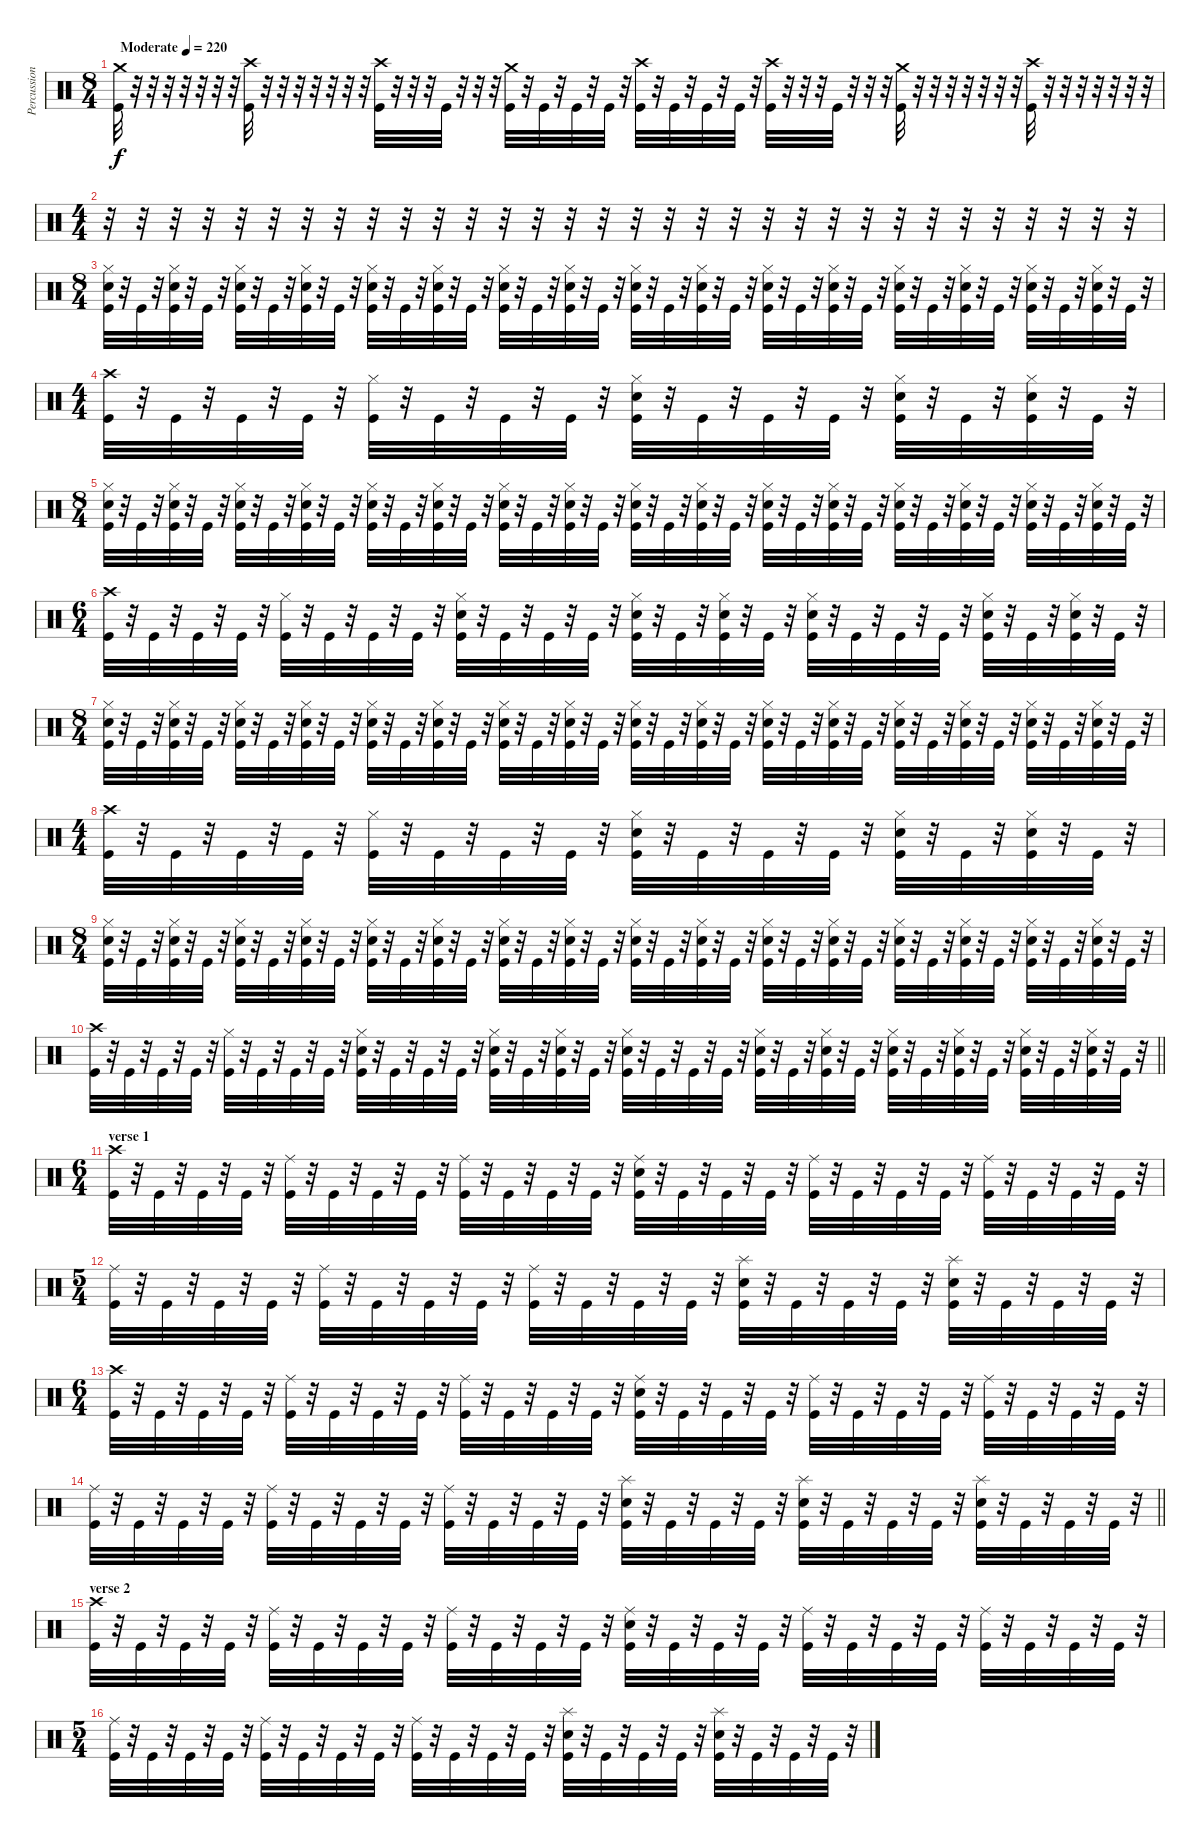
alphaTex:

\track ("Percussion" "Percussion") {instrument percussion}
\staff {score}
\articulation defaults
\ts (8 4)
\tempo (220 "Moderate")
\clef neutral
\ks c
("Kick (hit)" "Crash medium (hit)").32{dy f} r.32 r.32 r.32 r.32 r.32 r.32 r.32 ("Kick (hit)" "Crash high (hit)").32 r.32 r.32 r.32 r.32 r.32 r.32 r.32 ("Kick (hit)" "Crash high (hit)").32 r.32 r.32 r.32 "Kick (hit)".32 r.32 r.32 r.32 ("Kick (hit)" "Crash medium (hit)").32 r.32 "Kick (hit)".32 r.32 "Kick (hit)".32 r.32 "Kick (hit)".32 r.32 ("Kick (hit)" "Crash high (hit)").32 r.32 "Kick (hit)".32 r.32 "Kick (hit)".32 r.32 "Kick (hit)".32 r.32 ("Kick (hit)" "Crash high (hit)").32 r.32 r.32 r.32 "Kick (hit)".32 r.32 r.32 r.32 ("Kick (hit)" "Crash medium (hit)").32 r.32 r.32 r.32 r.32 r.32 r.32 r.32 ("Kick (hit)" "Crash high (hit)").32 r.32 r.32 r.32 r.32 r.32 r.32 r.32 |
\ts (4 4)
r.32 r.32 r.32 r.32 r.32 r.32 r.32 r.32 r.32 r.32 r.32 r.32 r.32 r.32 r.32 r.32 r.32 r.32 r.32 r.32 r.32 r.32 r.32 r.32 r.32 r.32 r.32 r.32 r.32 r.32 r.32 r.32 |
\ts (8 4)
("Electric Snare (hit)" "Kick (hit)" "Hi-Hat (closed)").32 r.32 "Kick (hit)".32 r.32 ("Electric Snare (hit)" "Kick (hit)" "Hi-Hat (closed)").32 r.32 "Kick (hit)".32 r.32 ("Electric Snare (hit)" "Kick (hit)" "Hi-Hat (closed)").32 r.32 "Kick (hit)".32 r.32 ("Electric Snare (hit)" "Kick (hit)" "Hi-Hat (closed)").32 r.32 "Kick (hit)".32 r.32 ("Electric Snare (hit)" "Kick (hit)" "Hi-Hat (closed)").32 r.32 "Kick (hit)".32 r.32 ("Electric Snare (hit)" "Kick (hit)" "Hi-Hat (closed)").32 r.32 "Kick (hit)".32 r.32 ("Electric Snare (hit)" "Kick (hit)" "Hi-Hat (closed)").32 r.32 "Kick (hit)".32 r.32 ("Electric Snare (hit)" "Kick (hit)" "Hi-Hat (closed)").32 r.32 "Kick (hit)".32 r.32 ("Electric Snare (hit)" "Kick (hit)" "Hi-Hat (closed)").32 r.32 "Kick (hit)".32 r.32 ("Electric Snare (hit)" "Kick (hit)" "Hi-Hat (closed)").32 r.32 "Kick (hit)".32 r.32 ("Electric Snare (hit)" "Kick (hit)" "Hi-Hat (closed)").32 r.32 "Kick (hit)".32 r.32 ("Electric Snare (hit)" "Kick (hit)" "Hi-Hat (closed)").32 r.32 "Kick (hit)".32 r.32 ("Kick (hit)" "Electric Snare (hit)" "Hi-Hat (closed)").32 r.32 "Kick (hit)".32 r.32 ("Kick (hit)" "Electric Snare (hit)" "Hi-Hat (closed)").32 r.32 "Kick (hit)".32 r.32 ("Kick (hit)" "Electric Snare (hit)" "Hi-Hat (closed)").32 r.32 "Kick (hit)".32 r.32 ("Kick (hit)" "Electric Snare (hit)" "Hi-Hat (closed)").32 r.32 "Kick (hit)".32 r.32 |
\ts (4 4)
("Kick (hit)" "Crash high (hit)").32 r.32 "Kick (hit)".32 r.32 "Kick (hit)".32 r.32 "Kick (hit)".32 r.32 ("Kick (hit)" "Hi-Hat (closed)").32 r.32 "Kick (hit)".32 r.32 "Kick (hit)".32 r.32 "Kick (hit)".32 r.32 ("Kick (hit)" "Electric Snare (hit)" "Hi-Hat (closed)").32 r.32 "Kick (hit)".32 r.32 "Kick (hit)".32 r.32 "Kick (hit)".32 r.32 ("Kick (hit)" "Electric Snare (hit)" "Hi-Hat (closed)").32 r.32 "Kick (hit)".32 r.32 ("Kick (hit)" "Electric Snare (hit)" "Hi-Hat (closed)").32 r.32 "Kick (hit)".32 r.32 |
\ts (8 4)
("Electric Snare (hit)" "Kick (hit)" "Hi-Hat (closed)").32 r.32 "Kick (hit)".32 r.32 ("Electric Snare (hit)" "Kick (hit)" "Hi-Hat (closed)").32 r.32 "Kick (hit)".32 r.32 ("Electric Snare (hit)" "Kick (hit)" "Hi-Hat (closed)").32 r.32 "Kick (hit)".32 r.32 ("Electric Snare (hit)" "Kick (hit)" "Hi-Hat (closed)").32 r.32 "Kick (hit)".32 r.32 ("Electric Snare (hit)" "Kick (hit)" "Hi-Hat (closed)").32 r.32 "Kick (hit)".32 r.32 ("Electric Snare (hit)" "Kick (hit)" "Hi-Hat (closed)").32 r.32 "Kick (hit)".32 r.32 ("Electric Snare (hit)" "Kick (hit)" "Hi-Hat (closed)").32 r.32 "Kick (hit)".32 r.32 ("Electric Snare (hit)" "Kick (hit)" "Hi-Hat (closed)").32 r.32 "Kick (hit)".32 r.32 ("Electric Snare (hit)" "Kick (hit)" "Hi-Hat (closed)").32 r.32 "Kick (hit)".32 r.32 ("Electric Snare (hit)" "Kick (hit)" "Hi-Hat (closed)").32 r.32 "Kick (hit)".32 r.32 ("Electric Snare (hit)" "Kick (hit)" "Hi-Hat (closed)").32 r.32 "Kick (hit)".32 r.32 ("Electric Snare (hit)" "Kick (hit)" "Hi-Hat (closed)").32 r.32 "Kick (hit)".32 r.32 ("Kick (hit)" "Electric Snare (hit)" "Hi-Hat (closed)").32 r.32 "Kick (hit)".32 r.32 ("Kick (hit)" "Electric Snare (hit)" "Hi-Hat (closed)").32 r.32 "Kick (hit)".32 r.32 ("Kick (hit)" "Electric Snare (hit)" "Hi-Hat (closed)").32 r.32 "Kick (hit)".32 r.32 ("Kick (hit)" "Electric Snare (hit)" "Hi-Hat (closed)").32 r.32 "Kick (hit)".32 r.32 |
\ts (6 4)
("Kick (hit)" "Crash high (hit)").32 r.32 "Kick (hit)".32 r.32 "Kick (hit)".32 r.32 "Kick (hit)".32 r.32 ("Kick (hit)" "Hi-Hat (closed)").32 r.32 "Kick (hit)".32 r.32 "Kick (hit)".32 r.32 "Kick (hit)".32 r.32 ("Kick (hit)" "Electric Snare (hit)" "Hi-Hat (closed)").32 r.32 "Kick (hit)".32 r.32 "Kick (hit)".32 r.32 "Kick (hit)".32 r.32 ("Kick (hit)" "Electric Snare (hit)" "Hi-Hat (closed)").32 r.32 "Kick (hit)".32 r.32 ("Kick (hit)" "Electric Snare (hit)" "Hi-Hat (closed)").32 r.32 "Kick (hit)".32 r.32 ("Kick (hit)" "Electric Snare (hit)" "Hi-Hat (closed)").32 r.32 "Kick (hit)".32 r.32 "Kick (hit)".32 r.32 "Kick (hit)".32 r.32 ("Kick (hit)" "Electric Snare (hit)" "Hi-Hat (closed)").32 r.32 "Kick (hit)".32 r.32 ("Kick (hit)" "Electric Snare (hit)" "Hi-Hat (closed)").32 r.32 "Kick (hit)".32 r.32 |
\ts (8 4)
("Electric Snare (hit)" "Kick (hit)" "Hi-Hat (closed)").32 r.32 "Kick (hit)".32 r.32 ("Electric Snare (hit)" "Kick (hit)" "Hi-Hat (closed)").32 r.32 "Kick (hit)".32 r.32 ("Electric Snare (hit)" "Kick (hit)" "Hi-Hat (closed)").32 r.32 "Kick (hit)".32 r.32 ("Electric Snare (hit)" "Kick (hit)" "Hi-Hat (closed)").32 r.32 "Kick (hit)".32 r.32 ("Electric Snare (hit)" "Kick (hit)" "Hi-Hat (closed)").32 r.32 "Kick (hit)".32 r.32 ("Electric Snare (hit)" "Kick (hit)" "Hi-Hat (closed)").32 r.32 "Kick (hit)".32 r.32 ("Electric Snare (hit)" "Kick (hit)" "Hi-Hat (closed)").32 r.32 "Kick (hit)".32 r.32 ("Electric Snare (hit)" "Kick (hit)" "Hi-Hat (closed)").32 r.32 "Kick (hit)".32 r.32 ("Electric Snare (hit)" "Kick (hit)" "Hi-Hat (closed)").32 r.32 "Kick (hit)".32 r.32 ("Electric Snare (hit)" "Kick (hit)" "Hi-Hat (closed)").32 r.32 "Kick (hit)".32 r.32 ("Electric Snare (hit)" "Kick (hit)" "Hi-Hat (closed)").32 r.32 "Kick (hit)".32 r.32 ("Electric Snare (hit)" "Kick (hit)" "Hi-Hat (closed)").32 r.32 "Kick (hit)".32 r.32 ("Kick (hit)" "Electric Snare (hit)" "Hi-Hat (closed)").32 r.32 "Kick (hit)".32 r.32 ("Kick (hit)" "Electric Snare (hit)" "Hi-Hat (closed)").32 r.32 "Kick (hit)".32 r.32 ("Kick (hit)" "Electric Snare (hit)" "Hi-Hat (closed)").32 r.32 "Kick (hit)".32 r.32 ("Kick (hit)" "Electric Snare (hit)" "Hi-Hat (closed)").32 r.32 "Kick (hit)".32 r.32 |
\ts (4 4)
("Kick (hit)" "Crash high (hit)").32 r.32 "Kick (hit)".32 r.32 "Kick (hit)".32 r.32 "Kick (hit)".32 r.32 ("Kick (hit)" "Hi-Hat (closed)").32 r.32 "Kick (hit)".32 r.32 "Kick (hit)".32 r.32 "Kick (hit)".32 r.32 ("Kick (hit)" "Electric Snare (hit)" "Hi-Hat (closed)").32 r.32 "Kick (hit)".32 r.32 "Kick (hit)".32 r.32 "Kick (hit)".32 r.32 ("Kick (hit)" "Electric Snare (hit)" "Hi-Hat (closed)").32 r.32 "Kick (hit)".32 r.32 ("Kick (hit)" "Electric Snare (hit)" "Hi-Hat (closed)").32 r.32 "Kick (hit)".32 r.32 |
\ts (8 4)
("Electric Snare (hit)" "Kick (hit)" "Hi-Hat (closed)").32 r.32 "Kick (hit)".32 r.32 ("Electric Snare (hit)" "Kick (hit)" "Hi-Hat (closed)").32 r.32 "Kick (hit)".32 r.32 ("Electric Snare (hit)" "Kick (hit)" "Hi-Hat (closed)").32 r.32 "Kick (hit)".32 r.32 ("Electric Snare (hit)" "Kick (hit)" "Hi-Hat (closed)").32 r.32 "Kick (hit)".32 r.32 ("Electric Snare (hit)" "Kick (hit)" "Hi-Hat (closed)").32 r.32 "Kick (hit)".32 r.32 ("Electric Snare (hit)" "Kick (hit)" "Hi-Hat (closed)").32 r.32 "Kick (hit)".32 r.32 ("Electric Snare (hit)" "Kick (hit)" "Hi-Hat (closed)").32 r.32 "Kick (hit)".32 r.32 ("Electric Snare (hit)" "Kick (hit)" "Hi-Hat (closed)").32 r.32 "Kick (hit)".32 r.32 ("Electric Snare (hit)" "Kick (hit)" "Hi-Hat (closed)").32 r.32 "Kick (hit)".32 r.32 ("Electric Snare (hit)" "Kick (hit)" "Hi-Hat (closed)").32 r.32 "Kick (hit)".32 r.32 ("Electric Snare (hit)" "Kick (hit)" "Hi-Hat (closed)").32 r.32 "Kick (hit)".32 r.32 ("Electric Snare (hit)" "Kick (hit)" "Hi-Hat (closed)").32 r.32 "Kick (hit)".32 r.32 ("Kick (hit)" "Electric Snare (hit)" "Hi-Hat (closed)").32 r.32 "Kick (hit)".32 r.32 ("Kick (hit)" "Electric Snare (hit)" "Hi-Hat (closed)").32 r.32 "Kick (hit)".32 r.32 ("Kick (hit)" "Electric Snare (hit)" "Hi-Hat (closed)").32 r.32 "Kick (hit)".32 r.32 ("Kick (hit)" "Electric Snare (hit)" "Hi-Hat (closed)").32 r.32 "Kick (hit)".32 r.32 |
\barLineRight lightlight
("Kick (hit)" "Crash high (hit)").32 r.32 "Kick (hit)".32 r.32 "Kick (hit)".32 r.32 "Kick (hit)".32 r.32 ("Kick (hit)" "Hi-Hat (closed)").32 r.32 "Kick (hit)".32 r.32 "Kick (hit)".32 r.32 "Kick (hit)".32 r.32 ("Kick (hit)" "Electric Snare (hit)" "Hi-Hat (closed)").32 r.32 "Kick (hit)".32 r.32 "Kick (hit)".32 r.32 "Kick (hit)".32 r.32 ("Kick (hit)" "Electric Snare (hit)" "Hi-Hat (closed)").32 r.32 "Kick (hit)".32 r.32 ("Kick (hit)" "Electric Snare (hit)" "Hi-Hat (closed)").32 r.32 "Kick (hit)".32 r.32 ("Kick (hit)" "Electric Snare (hit)" "Hi-Hat (closed)").32 r.32 "Kick (hit)".32 r.32 "Kick (hit)".32 r.32 "Kick (hit)".32 r.32 ("Kick (hit)" "Electric Snare (hit)" "Hi-Hat (closed)").32 r.32 "Kick (hit)".32 r.32 ("Kick (hit)" "Electric Snare (hit)" "Hi-Hat (closed)").32 r.32 "Kick (hit)".32 r.32 ("Kick (hit)" "Electric Snare (hit)" "Hi-Hat (closed)").32 r.32 "Kick (hit)".32 r.32 ("Kick (hit)" "Electric Snare (hit)" "Hi-Hat (closed)").32 r.32 "Kick (hit)".32 r.32 ("Kick (hit)" "Electric Snare (hit)" "Hi-Hat (closed)").32 r.32 "Kick (hit)".32 r.32 ("Kick (hit)" "Electric Snare (hit)" "Hi-Hat (closed)").32 r.32 "Kick (hit)".32 r.32 |
\ts (6 4)
\section ("" "verse 1")
("Kick (hit)" "Crash high (hit)").32 r.32 "Kick (hit)".32 r.32 "Kick (hit)".32 r.32 "Kick (hit)".32 r.32 ("Kick (hit)" "Ride (middle)").32 r.32 "Kick (hit)".32 r.32 "Kick (hit)".32 r.32 "Kick (hit)".32 r.32 ("Kick (hit)" "Ride (middle)").32 r.32 "Kick (hit)".32 r.32 "Kick (hit)".32 r.32 "Kick (hit)".32 r.32 ("Kick (hit)" "Electric Snare (hit)" "Ride (middle)").32 r.32 "Kick (hit)".32 r.32 "Kick (hit)".32 r.32 "Kick (hit)".32 r.32 ("Kick (hit)" "Ride (middle)").32 r.32 "Kick (hit)".32 r.32 "Kick (hit)".32 r.32 "Kick (hit)".32 r.32 ("Kick (hit)" "Ride (middle)").32 r.32 "Kick (hit)".32 r.32 "Kick (hit)".32 r.32 "Kick (hit)".32 r.32 |
\ts (5 4)
("Kick (hit)" "Ride (middle)").32 r.32 "Kick (hit)".32 r.32 "Kick (hit)".32 r.32 "Kick (hit)".32 r.32 ("Kick (hit)" "Ride (middle)").32 r.32 "Kick (hit)".32 r.32 "Kick (hit)".32 r.32 "Kick (hit)".32 r.32 ("Kick (hit)" "Ride (middle)").32 r.32 "Kick (hit)".32 r.32 "Kick (hit)".32 r.32 "Kick (hit)".32 r.32 ("Kick (hit)" "Electric Snare (hit)" "Splash (hit)").32 r.32 "Kick (hit)".32 r.32 "Kick (hit)".32 r.32 "Kick (hit)".32 r.32 ("Kick (hit)" "Electric Snare (hit)" "Splash (hit)").32 r.32 "Kick (hit)".32 r.32 "Kick (hit)".32 r.32 "Kick (hit)".32 r.32 |
\ts (6 4)
("Kick (hit)" "Crash high (hit)").32 r.32 "Kick (hit)".32 r.32 "Kick (hit)".32 r.32 "Kick (hit)".32 r.32 ("Kick (hit)" "Ride (middle)").32 r.32 "Kick (hit)".32 r.32 "Kick (hit)".32 r.32 "Kick (hit)".32 r.32 ("Kick (hit)" "Ride (middle)").32 r.32 "Kick (hit)".32 r.32 "Kick (hit)".32 r.32 "Kick (hit)".32 r.32 ("Kick (hit)" "Electric Snare (hit)" "Ride (middle)").32 r.32 "Kick (hit)".32 r.32 "Kick (hit)".32 r.32 "Kick (hit)".32 r.32 ("Kick (hit)" "Ride (middle)").32 r.32 "Kick (hit)".32 r.32 "Kick (hit)".32 r.32 "Kick (hit)".32 r.32 ("Kick (hit)" "Ride (middle)").32 r.32 "Kick (hit)".32 r.32 "Kick (hit)".32 r.32 "Kick (hit)".32 r.32 |
\barLineRight lightlight
("Kick (hit)" "Ride (middle)").32 r.32 "Kick (hit)".32 r.32 "Kick (hit)".32 r.32 "Kick (hit)".32 r.32 ("Kick (hit)" "Ride (middle)").32 r.32 "Kick (hit)".32 r.32 "Kick (hit)".32 r.32 "Kick (hit)".32 r.32 ("Kick (hit)" "Ride (middle)").32 r.32 "Kick (hit)".32 r.32 "Kick (hit)".32 r.32 "Kick (hit)".32 r.32 ("Kick (hit)" "Electric Snare (hit)" "Splash (hit)").32 r.32 "Kick (hit)".32 r.32 "Kick (hit)".32 r.32 "Kick (hit)".32 r.32 ("Kick (hit)" "Electric Snare (hit)" "Splash (hit)").32 r.32 "Kick (hit)".32 r.32 "Kick (hit)".32 r.32 "Kick (hit)".32 r.32 ("Kick (hit)" "Electric Snare (hit)" "Splash (hit)").32 r.32 "Kick (hit)".32 r.32 "Kick (hit)".32 r.32 "Kick (hit)".32 r.32 |
\section ("" "verse 2")
("Kick (hit)" "Crash high (hit)").32 r.32 "Kick (hit)".32 r.32 "Kick (hit)".32 r.32 "Kick (hit)".32 r.32 ("Kick (hit)" "Ride (middle)").32 r.32 "Kick (hit)".32 r.32 "Kick (hit)".32 r.32 "Kick (hit)".32 r.32 ("Kick (hit)" "Ride (middle)").32 r.32 "Kick (hit)".32 r.32 "Kick (hit)".32 r.32 "Kick (hit)".32 r.32 ("Kick (hit)" "Electric Snare (hit)" "Ride (middle)").32 r.32 "Kick (hit)".32 r.32 "Kick (hit)".32 r.32 "Kick (hit)".32 r.32 ("Kick (hit)" "Ride (middle)").32 r.32 "Kick (hit)".32 r.32 "Kick (hit)".32 r.32 "Kick (hit)".32 r.32 ("Kick (hit)" "Ride (middle)").32 r.32 "Kick (hit)".32 r.32 "Kick (hit)".32 r.32 "Kick (hit)".32 r.32 |
\ts (5 4)
("Kick (hit)" "Ride (middle)").32 r.32 "Kick (hit)".32 r.32 "Kick (hit)".32 r.32 "Kick (hit)".32 r.32 ("Kick (hit)" "Ride (middle)").32 r.32 "Kick (hit)".32 r.32 "Kick (hit)".32 r.32 "Kick (hit)".32 r.32 ("Kick (hit)" "Ride (middle)").32 r.32 "Kick (hit)".32 r.32 "Kick (hit)".32 r.32 "Kick (hit)".32 r.32 ("Kick (hit)" "Electric Snare (hit)" "Splash (hit)").32 r.32 "Kick (hit)".32 r.32 "Kick (hit)".32 r.32 "Kick (hit)".32 r.32 ("Kick (hit)" "Electric Snare (hit)" "Splash (hit)").32 r.32 "Kick (hit)".32 r.32 "Kick (hit)".32 r.32 "Kick (hit)".32 r.32
